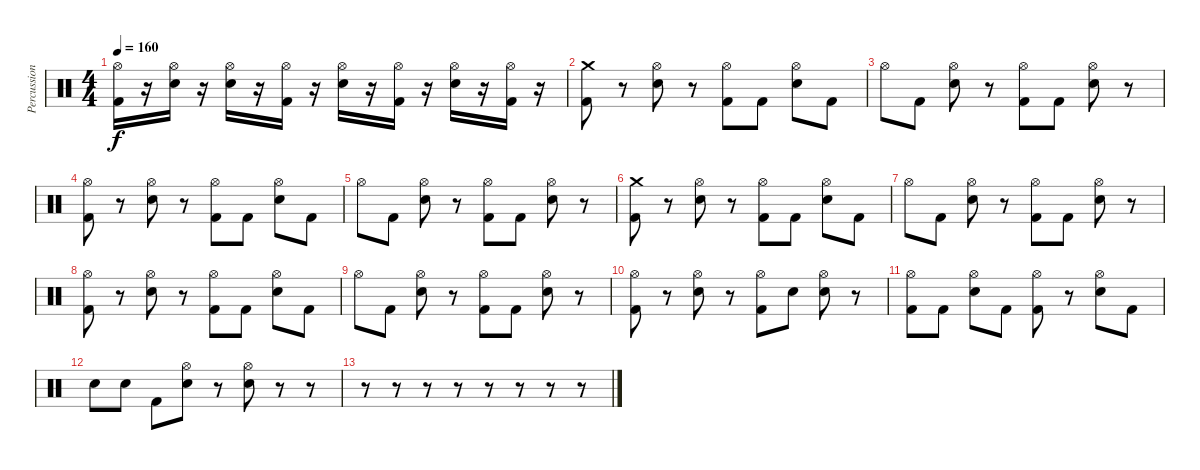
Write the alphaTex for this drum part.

\track ("Percussion" "Percussion") {instrument percussion}
\staff {score}
\articulation defaults
\ts (4 4)
\tempo 160
\clef neutral
\ks c
("Hi-Hat (open)" "Kick (hit) 2").16{dy f} r.16 ("Hi-Hat (open)" "Snare (hit) 2").16 r.16 ("Hi-Hat (open)" "Snare (hit) 2").16 r.16 ("Hi-Hat (open)" "Kick (hit) 2").16 r.16 ("Hi-Hat (open)" "Snare (hit) 2").16 r.16 ("Hi-Hat (open)" "Kick (hit) 2").16 r.16 ("Hi-Hat (open)" "Snare (hit) 2").16 r.16 ("Hi-Hat (open)" "Kick (hit) 2").16 r.16 |
("Crash medium (hit)" "Kick (hit) 2").8 r.8 ("Hi-Hat (open)" "Snare (hit) 2").8 r.8 ("Hi-Hat (open)" "Kick (hit) 2").8 "Kick (hit) 2".8 ("Hi-Hat (open)" "Snare (hit) 2").8 "Kick (hit) 2".8 |
"Hi-Hat (open)".8 "Kick (hit) 2".8 ("Hi-Hat (open)" "Snare (hit) 2").8 r.8 ("Hi-Hat (open)" "Kick (hit) 2").8 "Kick (hit) 2".8 ("Hi-Hat (open)" "Snare (hit) 2").8 r.8 |
("Hi-Hat (open)" "Kick (hit) 2").8 r.8 ("Hi-Hat (open)" "Snare (hit) 2").8 r.8 ("Hi-Hat (open)" "Kick (hit) 2").8 "Kick (hit) 2".8 ("Hi-Hat (open)" "Snare (hit) 2").8 "Kick (hit) 2".8 |
"Hi-Hat (open)".8 "Kick (hit) 2".8 ("Hi-Hat (open)" "Snare (hit) 2").8 r.8 ("Hi-Hat (open)" "Kick (hit) 2").8 "Kick (hit) 2".8 ("Hi-Hat (open)" "Snare (hit) 2").8 r.8 |
("Crash medium (hit)" "Kick (hit) 2").8 r.8 ("Hi-Hat (open)" "Snare (hit) 2").8 r.8 ("Hi-Hat (open)" "Kick (hit) 2").8 "Kick (hit) 2".8 ("Hi-Hat (open)" "Snare (hit) 2").8 "Kick (hit) 2".8 |
"Hi-Hat (open)".8 "Kick (hit) 2".8 ("Hi-Hat (open)" "Snare (hit) 2").8 r.8 ("Hi-Hat (open)" "Kick (hit) 2").8 "Kick (hit) 2".8 ("Hi-Hat (open)" "Snare (hit) 2").8 r.8 |
("Hi-Hat (open)" "Kick (hit) 2").8 r.8 ("Hi-Hat (open)" "Snare (hit) 2").8 r.8 ("Hi-Hat (open)" "Kick (hit) 2").8 "Kick (hit) 2".8 ("Hi-Hat (open)" "Snare (hit) 2").8 "Kick (hit) 2".8 |
"Hi-Hat (open)".8 "Kick (hit) 2".8 ("Hi-Hat (open)" "Snare (hit) 2").8 r.8 ("Hi-Hat (open)" "Kick (hit) 2").8 "Kick (hit) 2".8 ("Hi-Hat (open)" "Snare (hit) 2").8 r.8 |
("Hi-Hat (open)" "Kick (hit) 2").8 r.8 ("Hi-Hat (open)" "Snare (hit) 2").8 r.8 ("Hi-Hat (open)" "Kick (hit) 2").8 "Snare (hit) 2".8 ("Hi-Hat (open)" "Snare (hit) 2").8 r.8 |
("Hi-Hat (open)" "Kick (hit) 2").8 "Kick (hit) 2".8 ("Hi-Hat (open)" "Snare (hit) 2").8 "Kick (hit) 2".8 ("Hi-Hat (open)" "Kick (hit) 2").8 r.8 ("Hi-Hat (open)" "Snare (hit) 2").8 "Kick (hit) 2".8 |
"Snare (hit) 2".8 "Snare (hit) 2".8 "Kick (hit) 2".8 ("Hi-Hat (open)" "Snare (hit) 2").8 r.8 ("Hi-Hat (open)" "Snare (hit) 2").8 r.8 r.8 |
r.8 r.8 r.8 r.8 r.8 r.8 r.8 r.8
